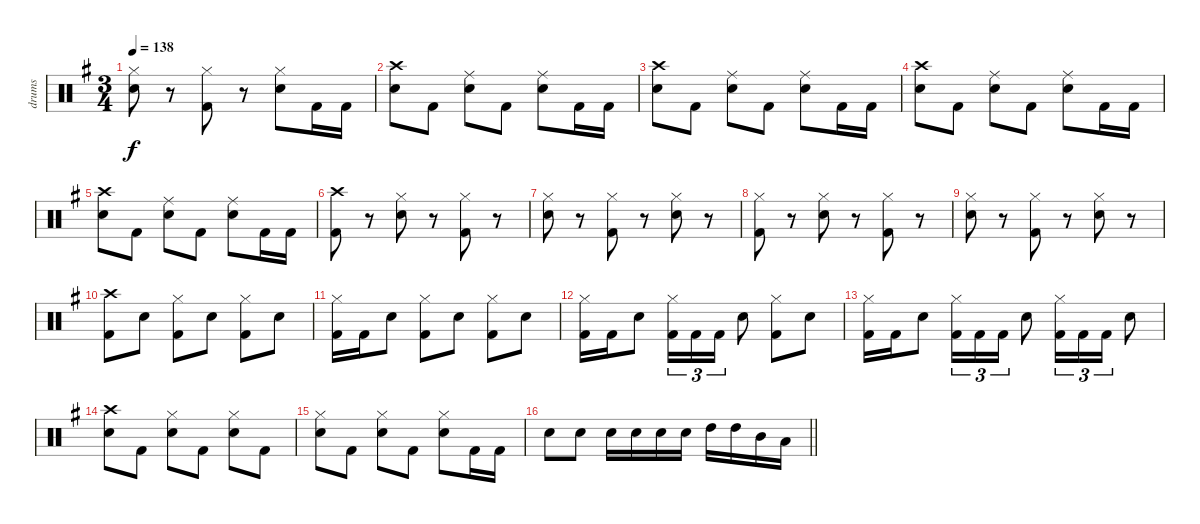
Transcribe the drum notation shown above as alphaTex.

\track ("drums" "drums") {instrument percussion}
\staff {score}
\articulation defaults
\ts (3 4)
\tempo 138
\clef neutral
\ks eminor
("Hi-Hat (closed)" "Snare (hit) 2").8{dy f} r.8 ("Hi-Hat (closed)" "Kick (hit) 2").8 r.8 ("Hi-Hat (closed)" "Snare (hit) 2").8 "Kick (hit) 2".16 "Kick (hit) 2".16 |
("Crash high (hit)" "Snare (hit) 2").8 "Kick (hit) 2".8 ("Ride (middle)" "Snare (hit) 2").8 "Kick (hit) 2".8 ("Ride (middle)" "Snare (hit) 2").8 "Kick (hit) 2".16 "Kick (hit) 2".16 |
("Crash high (hit)" "Snare (hit) 2").8 "Kick (hit) 2".8 ("Ride (middle)" "Snare (hit) 2").8 "Kick (hit) 2".8 ("Ride (middle)" "Snare (hit) 2").8 "Kick (hit) 2".16 "Kick (hit) 2".16 |
("Crash high (hit)" "Snare (hit) 2").8 "Kick (hit) 2".8 ("Ride (middle)" "Snare (hit) 2").8 "Kick (hit) 2".8 ("Ride (middle)" "Snare (hit) 2").8 "Kick (hit) 2".16 "Kick (hit) 2".16 |
("Crash high (hit)" "Snare (hit) 2").8 "Kick (hit) 2".8 ("Ride (middle)" "Snare (hit) 2").8 "Kick (hit) 2".8 ("Ride (middle)" "Snare (hit) 2").8 "Kick (hit) 2".16 "Kick (hit) 2".16 |
("Crash high (hit)" "Kick (hit) 2").8 r.8 ("Hi-Hat (closed)" "Snare (hit) 2").8 r.8 ("Hi-Hat (closed)" "Kick (hit) 2").8 r.8 |
("Hi-Hat (closed)" "Snare (hit) 2").8 r.8 ("Hi-Hat (closed)" "Kick (hit) 2").8 r.8 ("Hi-Hat (closed)" "Snare (hit) 2").8 r.8 |
("Hi-Hat (closed)" "Kick (hit) 2").8 r.8 ("Hi-Hat (closed)" "Snare (hit) 2").8 r.8 ("Hi-Hat (closed)" "Kick (hit) 2").8 r.8 |
("Hi-Hat (closed)" "Snare (hit) 2").8 r.8 ("Hi-Hat (closed)" "Kick (hit) 2").8 r.8 ("Hi-Hat (closed)" "Snare (hit) 2").8 r.8 |
("Crash high (hit)" "Kick (hit) 2").8 "Snare (hit) 2".8 ("Hi-Hat (closed)" "Kick (hit) 2").8 "Snare (hit) 2".8 ("Hi-Hat (closed)" "Kick (hit) 2").8 "Snare (hit) 2".8 |
("Hi-Hat (closed)" "Kick (hit) 2").16 "Kick (hit) 2".16 "Snare (hit) 2".8 ("Hi-Hat (closed)" "Kick (hit) 2").8 "Snare (hit) 2".8 ("Hi-Hat (closed)" "Kick (hit) 2").8 "Snare (hit) 2".8 |
("Hi-Hat (closed)" "Kick (hit) 2").16 "Kick (hit) 2".16 "Snare (hit) 2".8 ("Hi-Hat (closed)" "Kick (hit) 2").16{tu (3 2)} "Kick (hit) 2".16{tu (3 2)} "Kick (hit) 2".16{tu (3 2)} "Snare (hit) 2".8 ("Hi-Hat (closed)" "Kick (hit) 2").8 "Snare (hit) 2".8 |
("Hi-Hat (closed)" "Kick (hit) 2").16 "Kick (hit) 2".16 "Snare (hit) 2".8 ("Hi-Hat (closed)" "Kick (hit) 2").16{tu (3 2)} "Kick (hit) 2".16{tu (3 2)} "Kick (hit) 2".16{tu (3 2)} "Snare (hit) 2".8 ("Hi-Hat (closed)" "Kick (hit) 2").16{tu (3 2)} "Kick (hit) 2".16{tu (3 2)} "Kick (hit) 2".16{tu (3 2)} "Snare (hit) 2".8 |
("Crash high (hit)" "Snare (hit) 2").8 "Kick (hit) 2".8 ("Hi-Hat (closed)" "Snare (hit) 2").8 "Kick (hit) 2".8 ("Hi-Hat (closed)" "Snare (hit) 2").8 "Kick (hit) 2".8 |
("Hi-Hat (closed)" "Snare (hit) 2").8 "Kick (hit) 2".8 ("Hi-Hat (closed)" "Snare (hit) 2").8 "Kick (hit) 2".8 ("Hi-Hat (closed)" "Snare (hit) 2").8 "Kick (hit) 2".16 "Kick (hit) 2".16 |
\barLineRight lightlight "Snare (hit) 2".8 "Snare (hit) 2".8 "Snare (hit) 2".16 "Snare (hit) 2".16 "Snare (hit) 2".16 "Snare (hit) 2".16 "High Tom (hit)".16 "High Tom (hit)".16 "Mid Tom (hit)".16 "Low Tom (hit)".16
